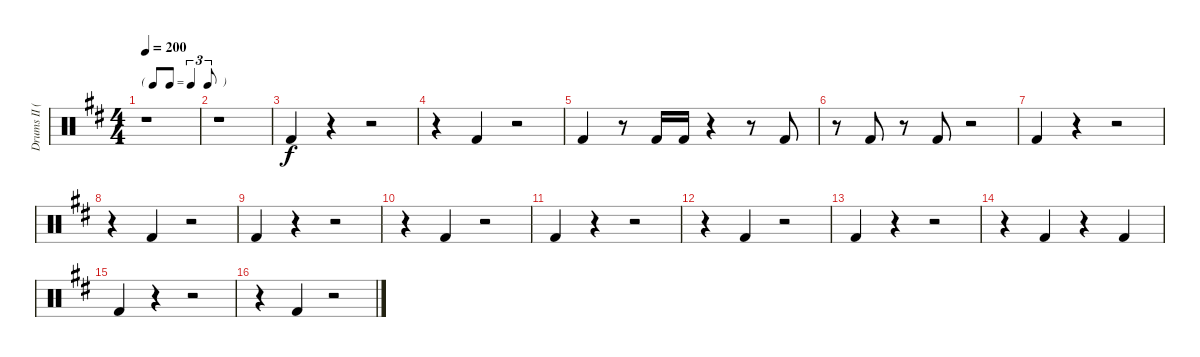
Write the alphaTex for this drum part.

\track ("Drums II (Ruka)" "Drums II (") {instrument percussion}
\staff {score}
\articulation defaults
\ts (4 4)
\tf triplet8th
\tempo 200
\clef neutral
\ks d
r.1{dy f} |
r.1 |
"Kick (hit) 2".4 r.4 r.2 |
r.4 "Kick (hit) 2".4 r.2 |
"Kick (hit) 2".4 r.8 "Kick (hit) 2".16 "Kick (hit) 2".16 r.4 r.8 "Kick (hit) 2".8 |
r.8 "Kick (hit) 2".8 r.8 "Kick (hit) 2".8 r.2 |
"Kick (hit) 2".4 r.4 r.2 |
r.4 "Kick (hit) 2".4 r.2 |
"Kick (hit) 2".4 r.4 r.2 |
r.4 "Kick (hit) 2".4 r.2 |
"Kick (hit) 2".4 r.4 r.2 |
r.4 "Kick (hit) 2".4 r.2 |
"Kick (hit) 2".4 r.4 r.2 |
r.4 "Kick (hit) 2".4 r.4 "Kick (hit) 2".4 |
"Kick (hit) 2".4 r.4 r.2 |
r.4 "Kick (hit) 2".4 r.2
